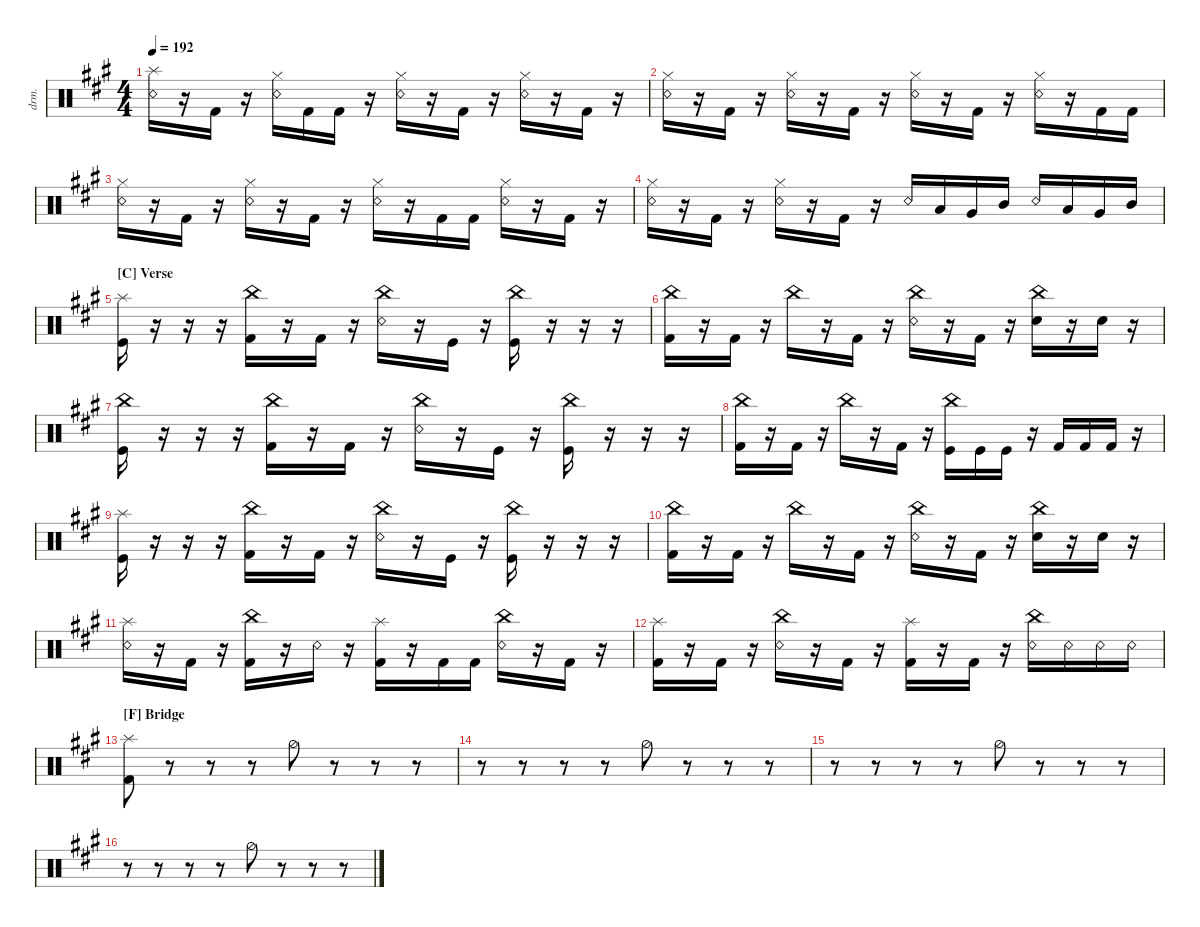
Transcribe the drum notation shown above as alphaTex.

\defaultSystemsLayout 4
\hideDynamics
\bracketExtendMode nobrackets
\otherSystemsTrackNameOrientation horizontal
\track ("Drumkit" "drm.") {instrument percussion}
\staff {score}
\articulation defaults
\ts (4 4)
\tempo 192
\clef neutral
\ks a
("Snare (rim shot)"{acc forcenatural} "Splash (hit)"{acc forcenatural}).16{dy ff beam Down} r.16{beam Down} "Kick (hit) 2"{acc forcenatural}.16{beam Down} r.16{beam Down} ("Snare (rim shot)"{acc forcenatural} "Hi-Hat (closed)"{acc forcenatural}).16{beam Down} "Kick (hit) 2"{acc forcenatural}.16{beam Down} "Kick (hit) 2"{acc forcenatural}.16{beam Down} r.16{beam Down} ("Snare (rim shot)"{acc forcenatural} "Hi-Hat (closed)"{acc forcenatural}).16{beam Down} r.16{beam Down} "Kick (hit) 2"{acc forcenatural}.16{beam Down} r.16{beam Down} ("Snare (rim shot)"{acc forcenatural} "Hi-Hat (closed)"{acc forcenatural}).16{beam Down} r.16{beam Down} "Kick (hit) 2"{acc forcenatural}.16{beam Down} r.16{beam Down} |
("Snare (rim shot)"{acc forcenatural} "Hi-Hat (closed)"{acc forcenatural}).16{beam Down} r.16{beam Down} "Kick (hit) 2"{acc forcenatural}.16{beam Down} r.16{beam Down} ("Snare (rim shot)"{acc forcenatural} "Hi-Hat (closed)"{acc forcenatural}).16{beam Down} r.16{beam Down} "Kick (hit) 2"{acc forcenatural}.16{beam Down} r.16{beam Down} ("Snare (rim shot)"{acc forcenatural} "Hi-Hat (closed)"{acc forcenatural}).16{beam Down} r.16{beam Down} "Kick (hit) 2"{acc forcenatural}.16{beam Down} r.16{beam Down} ("Snare (rim shot)"{acc forcenatural} "Hi-Hat (closed)"{acc forcenatural}).16{beam Down} r.16{beam Down} "Kick (hit) 2"{acc forcenatural}.16{beam Down} "Kick (hit) 2"{acc forcenatural}.16{beam Down} |
("Snare (rim shot)"{acc forcenatural} "Hi-Hat (closed)"{acc forcenatural}).16{beam Down} r.16{beam Down} "Kick (hit) 2"{acc forcenatural}.16{beam Down} r.16{beam Down} ("Snare (rim shot)"{acc forcenatural} "Hi-Hat (closed)"{acc forcenatural}).16{beam Down} r.16{beam Down} "Kick (hit) 2"{acc forcenatural}.16{beam Down} r.16{beam Down} ("Snare (rim shot)"{acc forcenatural} "Hi-Hat (closed)"{acc forcenatural}).16{beam Down} r.16{beam Down} "Kick (hit) 2"{acc forcenatural}.16{beam Down} "Kick (hit) 2"{acc forcenatural}.16{beam Down} ("Snare (rim shot)"{acc forcenatural} "Hi-Hat (closed)"{acc forcenatural}).16{beam Down} r.16{beam Down} "Kick (hit) 2"{acc forcenatural}.16{beam Down} r.16{beam Down} |
("Snare (rim shot)"{acc forcenatural} "Hi-Hat (closed)"{acc forcenatural}).16{beam Down} r.16{beam Down} "Kick (hit) 2"{acc forcenatural}.16{beam Down} r.16{beam Down} ("Snare (rim shot)"{acc forcenatural} "Hi-Hat (closed)"{acc forcenatural}).16{beam Down} r.16{beam Down} "Kick (hit) 2"{acc forcenatural}.16{beam Down} r.16{beam Down} "Snare (rim shot)"{acc forcenatural}.16{beam Up} "Low Tom (hit)"{acc forcenatural}.16{beam Up} "Very Low Tom (hit)"{acc forcenatural}.16{beam Up} "Mid Tom (hit)"{acc forcenatural}.16{beam Up} "Snare (rim shot)"{acc forcenatural}.16{beam Up} "Low Tom (hit)"{acc forcenatural}.16{beam Up} "Very Low Tom (hit)"{acc forcenatural}.16{beam Up} "Mid Tom (hit)"{acc forcenatural}.16{beam Up} |
\section ("C" "Verse")
("Kick (hit)"{acc forcenatural} "Splash (hit)"{acc forcenatural}).16{beam Down} r.16{beam Down} r.16{beam Down} r.16{beam Down} ("China (hit)"{acc forcenatural} "Kick (hit) 2"{acc forcenatural}).16{beam Down} r.16{beam Down} "Kick (hit) 2"{acc forcenatural}.16{beam Down} r.16{beam Down} ("China (hit)"{acc forcenatural} "Snare (rim shot)"{acc forcenatural}).16{beam Down} r.16{beam Down} "Kick (hit)"{acc forcenatural}.16{beam Down} r.16{beam Down} ("Kick (hit)"{acc forcenatural} "China (hit)"{acc forcenatural}).16{beam Down} r.16{beam Down} r.16{beam Down} r.16{beam Down} |
("Kick (hit) 2"{acc forcenatural} "China (hit)"{acc forcenatural}).16{beam Down} r.16{beam Down} "Kick (hit) 2"{acc forcenatural}.16{beam Down} r.16{beam Down} "China (hit)"{acc forcenatural}.16{beam Down} r.16{beam Down} "Kick (hit) 2"{acc forcenatural}.16{beam Down} r.16{beam Down} ("China (hit)"{acc forcenatural} "Snare (rim shot)"{acc forcenatural}).16{beam Down} r.16{beam Down} "Kick (hit) 2"{acc forcenatural}.16{beam Down} r.16{beam Down} ("China (hit)"{acc forcenatural} "Snare (hit) 2"{acc forcenatural}).16{beam Down} r.16{beam Down} "Snare (hit) 2"{acc forcenatural}.16{beam Down} r.16{beam Down} |
("China (hit)"{acc forcenatural} "Kick (hit)"{acc forcenatural}).16{beam Down} r.16{beam Down} r.16{beam Down} r.16{beam Down} ("China (hit)"{acc forcenatural} "Kick (hit) 2"{acc forcenatural}).16{beam Down} r.16{beam Down} "Kick (hit) 2"{acc forcenatural}.16{beam Down} r.16{beam Down} ("China (hit)"{acc forcenatural} "Snare (rim shot)"{acc forcenatural}).16{beam Down} r.16{beam Down} "Kick (hit)"{acc forcenatural}.16{beam Down} r.16{beam Down} ("Kick (hit)"{acc forcenatural} "China (hit)"{acc forcenatural}).16{beam Down} r.16{beam Down} r.16{beam Down} r.16{beam Down} |
("Kick (hit) 2"{acc forcenatural} "China (hit)"{acc forcenatural}).16{beam Down} r.16{beam Down} "Kick (hit) 2"{acc forcenatural}.16{beam Down} r.16{beam Down} "China (hit)"{acc forcenatural}.16{beam Down} r.16{beam Down} "Kick (hit) 2"{acc forcenatural}.16{beam Down} r.16{beam Down} ("Kick (hit)"{acc forcenatural} "China (hit)"{acc forcenatural}).16{beam Down} "Kick (hit)"{acc forcenatural}.16{beam Down} "Kick (hit)"{acc forcenatural}.16{beam Down} r.16{beam Down} "Kick (hit) 2"{acc forcenatural}.16{beam Up} "Kick (hit) 2"{acc forcenatural}.16{beam Up} "Kick (hit) 2"{acc forcenatural}.16{beam Up} r.16{beam Up} |
("Kick (hit)"{acc forcenatural} "Splash (hit)"{acc forcenatural}).16{beam Down} r.16{beam Down} r.16{beam Down} r.16{beam Down} ("China (hit)"{acc forcenatural} "Kick (hit) 2"{acc forcenatural}).16{beam Down} r.16{beam Down} "Kick (hit) 2"{acc forcenatural}.16{beam Down} r.16{beam Down} ("China (hit)"{acc forcenatural} "Snare (rim shot)"{acc forcenatural}).16{beam Down} r.16{beam Down} "Kick (hit)"{acc forcenatural}.16{beam Down} r.16{beam Down} ("Kick (hit)"{acc forcenatural} "China (hit)"{acc forcenatural}).16{beam Down} r.16{beam Down} r.16{beam Down} r.16{beam Down} |
("Kick (hit) 2"{acc forcenatural} "China (hit)"{acc forcenatural}).16{beam Down} r.16{beam Down} "Kick (hit) 2"{acc forcenatural}.16{beam Down} r.16{beam Down} "China (hit)"{acc forcenatural}.16{beam Down} r.16{beam Down} "Kick (hit) 2"{acc forcenatural}.16{beam Down} r.16{beam Down} ("China (hit)"{acc forcenatural} "Snare (rim shot)"{acc forcenatural}).16{beam Down} r.16{beam Down} "Kick (hit) 2"{acc forcenatural}.16{beam Down} r.16{beam Down} ("China (hit)"{acc forcenatural} "Snare (hit) 2"{acc forcenatural}).16{beam Down} r.16{beam Down} "Snare (hit) 2"{acc forcenatural}.16{beam Down} r.16{beam Down} |
("Snare (rim shot)"{acc forcenatural} "Splash (hit)"{acc forcenatural}).16{beam Down} r.16{beam Down} "Kick (hit) 2"{acc forcenatural}.16{beam Down} r.16{beam Down} ("Kick (hit) 2"{acc forcenatural} "China (hit)"{acc forcenatural}).16{beam Down} r.16{beam Down} "Snare (rim shot)"{acc forcenatural}.16{beam Down} r.16{beam Down} ("Kick (hit) 2"{acc forcenatural} "Splash (hit)"{acc forcenatural}).16{beam Down} r.16{beam Down} "Kick (hit) 2"{acc forcenatural}.16{beam Down} "Kick (hit) 2"{acc forcenatural}.16{beam Down} ("Snare (rim shot)"{acc forcenatural} "China (hit)"{acc forcenatural}).16{beam Down} r.16{beam Down} "Kick (hit) 2"{acc forcenatural}.16{beam Down} r.16{beam Down} |
("Kick (hit) 2"{acc forcenatural} "Splash (hit)"{acc forcenatural}).16{beam Down} r.16{beam Down} "Kick (hit) 2"{acc forcenatural}.16{beam Down} r.16{beam Down} ("Snare (rim shot)"{acc forcenatural} "China (hit)"{acc forcenatural}).16{beam Down} r.16{beam Down} "Kick (hit) 2"{acc forcenatural}.16{beam Down} r.16{beam Down} ("Kick (hit) 2"{acc forcenatural} "Splash (hit)"{acc forcenatural}).16{beam Down} r.16{beam Down} "Kick (hit) 2"{acc forcenatural}.16{beam Down} r.16{beam Down} ("Snare (rim shot)"{acc forcenatural} "China (hit)"{acc forcenatural}).16{beam Down} "Snare (rim shot)"{acc forcenatural}.16{beam Down} "Snare (rim shot)"{acc forcenatural}.16{beam Down} "Snare (rim shot)"{acc forcenatural}.16{beam Down} |
\section ("F" "Bridge")
("Splash (hit)"{acc forcenatural} "Kick (hit) 2"{acc forcenatural}).8{beam Down} r.8{beam Down} r.8{beam Down} r.8{beam Down} "Hi-Hat (half)"{acc forcenatural}.8{beam Down} r.8{beam Down} r.8{beam Down} r.8{beam Down} |
r.8{beam Down} r.8{beam Down} r.8{beam Down} r.8{beam Down} "Hi-Hat (half)"{acc forcenatural}.8{beam Down} r.8{beam Down} r.8{beam Down} r.8{beam Down} |
r.8{beam Down} r.8{beam Down} r.8{beam Down} r.8{beam Down} "Hi-Hat (half)"{acc forcenatural}.8{beam Down} r.8{beam Down} r.8{beam Down} r.8{beam Down} |
r.8{beam Down} r.8{beam Down} r.8{beam Down} r.8{beam Down} "Hi-Hat (half)"{acc forcenatural}.8{beam Down} r.8{beam Down} r.8{beam Down} r.8{beam Down}
